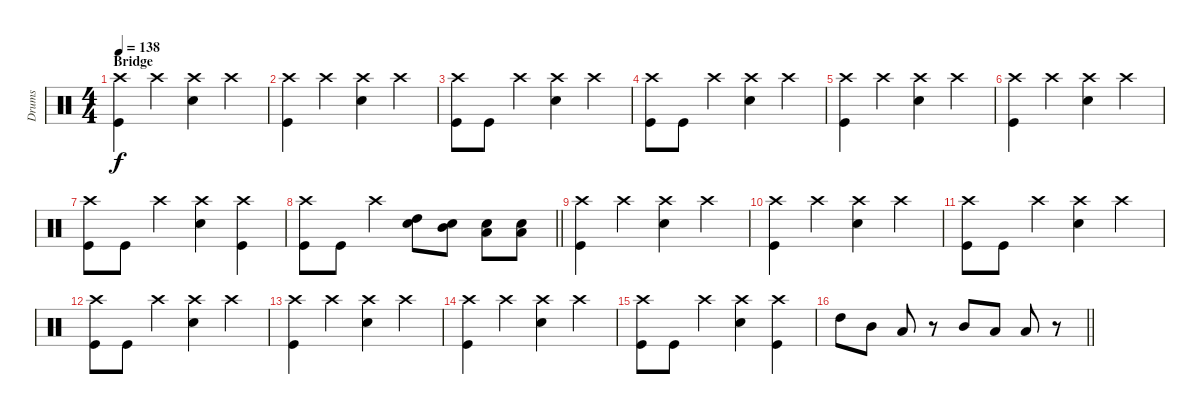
\track ("Drums" "Drums") {instrument percussion}
\staff {score}
\articulation defaults
\ts (4 4)
\section ("" "Bridge ")
\tempo 138
\clef neutral
\ks c
("Crash high (hit)" "Kick (hit)").4{dy f} "Crash high (hit)".4 ("Crash high (hit)" "Electric Snare (hit)").4 "Crash high (hit)".4 |
("Crash high (hit)" "Kick (hit)").4 "Crash high (hit)".4 ("Crash high (hit)" "Electric Snare (hit)").4 "Crash high (hit)".4 |
("Crash high (hit)" "Kick (hit)").8 "Kick (hit)".8 "Crash high (hit)".4 ("Crash high (hit)" "Electric Snare (hit)").4 "Crash high (hit)".4 |
("Crash high (hit)" "Kick (hit)").8 "Kick (hit)".8 "Crash high (hit)".4 ("Crash high (hit)" "Electric Snare (hit)").4 "Crash high (hit)".4 |
("Crash high (hit)" "Kick (hit)").4 "Crash high (hit)".4 ("Crash high (hit)" "Electric Snare (hit)").4 "Crash high (hit)".4 |
("Crash high (hit)" "Kick (hit)").4 "Crash high (hit)".4 ("Crash high (hit)" "Electric Snare (hit)").4 "Crash high (hit)".4 |
("Crash high (hit)" "Kick (hit)").8 "Kick (hit)".8 "Crash high (hit)".4 ("Crash high (hit)" "Electric Snare (hit)").4 ("Crash high (hit)" "Kick (hit)").4 |
\barLineRight lightlight
("Crash high (hit)" "Kick (hit)").8 "Kick (hit)".8 "Crash high (hit)".4 ("High Tom (hit)" "Electric Snare (hit)").8 ("Mid Tom (hit)" "Electric Snare (hit)").8 ("Low Tom (hit)" "Electric Snare (hit)").8 ("Low Floor Tom (hit)" "Electric Snare (hit)").8 |
("Crash high (hit)" "Kick (hit)").4 "Crash high (hit)".4 ("Crash high (hit)" "Electric Snare (hit)").4 "Crash high (hit)".4 |
("Crash high (hit)" "Kick (hit)").4 "Crash high (hit)".4 ("Crash high (hit)" "Electric Snare (hit)").4 "Crash high (hit)".4 |
("Crash high (hit)" "Kick (hit)").8 "Kick (hit)".8 "Crash high (hit)".4 ("Crash high (hit)" "Electric Snare (hit)").4 "Crash high (hit)".4 |
("Crash high (hit)" "Kick (hit)").8 "Kick (hit)".8 "Crash high (hit)".4 ("Crash high (hit)" "Electric Snare (hit)").4 "Crash high (hit)".4 |
("Crash high (hit)" "Kick (hit)").4 "Crash high (hit)".4 ("Crash high (hit)" "Electric Snare (hit)").4 "Crash high (hit)".4 |
("Crash high (hit)" "Kick (hit)").4 "Crash high (hit)".4 ("Crash high (hit)" "Electric Snare (hit)").4 "Crash high (hit)".4 |
("Crash high (hit)" "Kick (hit)").8 "Kick (hit)".8 "Crash high (hit)".4 ("Crash high (hit)" "Electric Snare (hit)").4 ("Crash high (hit)" "Kick (hit)").4 |
\barLineRight lightlight "High Tom (hit)".8 "Mid Tom (hit)".8 "Low Tom (hit)".8
r.8 "Mid Tom (hit)".8 "Low Tom (hit)".8 "Low Floor Tom (hit)".8 r.8
